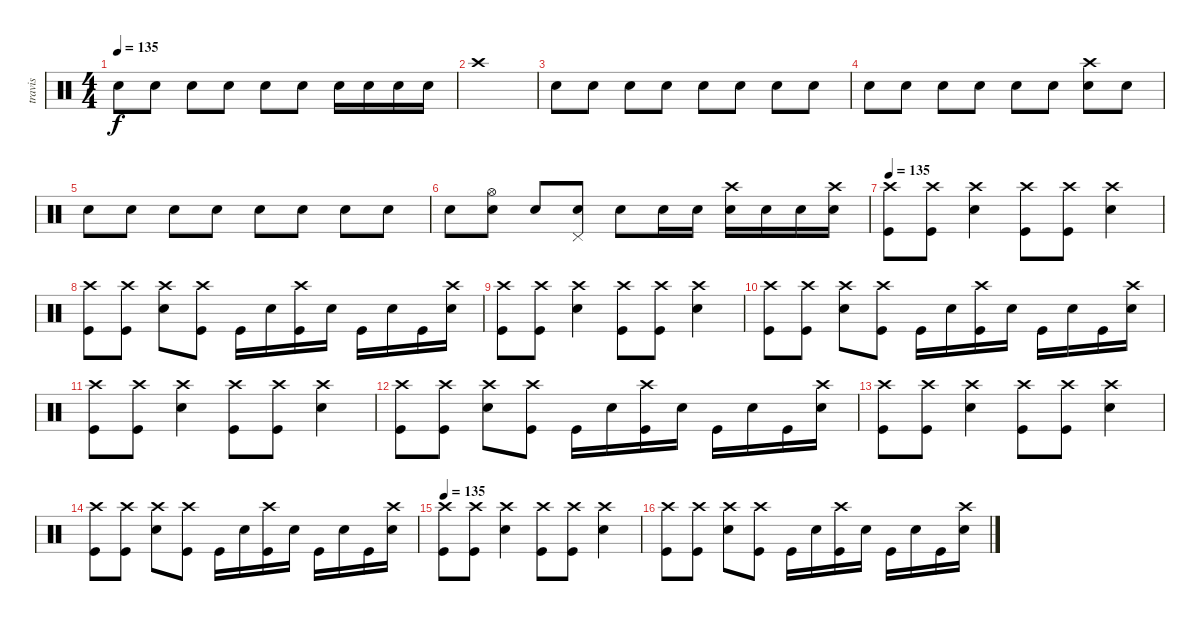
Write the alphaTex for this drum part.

\track ("travis" "travis") {instrument percussion}
\staff {score}
\articulation defaults
\ts (4 4)
\tempo 135
\clef neutral
\ks c "Electric Snare (hit)".8{dy f} "Electric Snare (hit)".8 "Electric Snare (hit)".8 "Electric Snare (hit)".8 "Electric Snare (hit)".8 "Electric Snare (hit)".8 "Electric Snare (hit)".16 "Electric Snare (hit)".16 "Electric Snare (hit)".16 "Electric Snare (hit)".16
|
"Crash high (hit)".1 |
"Electric Snare (hit)".8 "Electric Snare (hit)".8 "Electric Snare (hit)".8 "Electric Snare (hit)".8 "Electric Snare (hit)".8 "Electric Snare (hit)".8 "Electric Snare (hit)".8 "Electric Snare (hit)".8 |
"Electric Snare (hit)".8 "Electric Snare (hit)".8 "Electric Snare (hit)".8 "Electric Snare (hit)".8 "Electric Snare (hit)".8 "Electric Snare (hit)".8 ("Crash high (hit)" "Electric Snare (hit)").8 "Electric Snare (hit)".8 |
"Electric Snare (hit)".8 "Electric Snare (hit)".8 "Electric Snare (hit)".8 "Electric Snare (hit)".8 "Electric Snare (hit)".8 "Electric Snare (hit)".8 "Electric Snare (hit)".8 "Electric Snare (hit)".8 |
"Electric Snare (hit)".8 ("Hi-Hat (open)" "Electric Snare (hit)").8 "Electric Snare (hit)".8 ("Pedal Hi-Hat (hit)" "Electric Snare (hit)").8 "Electric Snare (hit)".8 "Electric Snare (hit)".16 "Electric Snare (hit)".16 ("Crash high (hit)" "Electric Snare (hit)").16 "Electric Snare (hit)".16 "Electric Snare (hit)".16 ("Crash high (hit)" "Electric Snare (hit)").16 |
\tempo 135
("Crash high (hit)" "Kick (hit)").8 ("Crash high (hit)" "Kick (hit)").8 ("Crash high (hit)" "Electric Snare (hit)").4 ("Crash high (hit)" "Kick (hit)").8 ("Crash high (hit)" "Kick (hit)").8 ("Crash high (hit)" "Electric Snare (hit)").4 |
("Crash high (hit)" "Kick (hit)").8 ("Crash high (hit)" "Kick (hit)").8 ("Crash high (hit)" "Electric Snare (hit)").8 ("Crash high (hit)" "Kick (hit)").8 "Kick (hit)".16 "Electric Snare (hit)".16 ("Crash high (hit)" "Kick (hit)").16 "Electric Snare (hit)".16 "Kick (hit)".16 "Electric Snare (hit)".16 "Kick (hit)".16 ("Crash high (hit)" "Electric Snare (hit)").16 |
("Crash high (hit)" "Kick (hit)").8 ("Crash high (hit)" "Kick (hit)").8 ("Crash high (hit)" "Electric Snare (hit)").4 ("Crash high (hit)" "Kick (hit)").8 ("Crash high (hit)" "Kick (hit)").8 ("Crash high (hit)" "Electric Snare (hit)").4 |
("Crash high (hit)" "Kick (hit)").8 ("Crash high (hit)" "Kick (hit)").8 ("Crash high (hit)" "Electric Snare (hit)").8 ("Crash high (hit)" "Kick (hit)").8 "Kick (hit)".16 "Electric Snare (hit)".16 ("Crash high (hit)" "Kick (hit)").16 "Electric Snare (hit)".16 "Kick (hit)".16 "Electric Snare (hit)".16 "Kick (hit)".16 ("Crash high (hit)" "Electric Snare (hit)").16 |
("Crash high (hit)" "Kick (hit)").8 ("Crash high (hit)" "Kick (hit)").8 ("Crash high (hit)" "Electric Snare (hit)").4 ("Crash high (hit)" "Kick (hit)").8 ("Crash high (hit)" "Kick (hit)").8 ("Crash high (hit)" "Electric Snare (hit)").4 |
("Crash high (hit)" "Kick (hit)").8 ("Crash high (hit)" "Kick (hit)").8 ("Crash high (hit)" "Electric Snare (hit)").8 ("Crash high (hit)" "Kick (hit)").8 "Kick (hit)".16 "Electric Snare (hit)".16 ("Crash high (hit)" "Kick (hit)").16 "Electric Snare (hit)".16 "Kick (hit)".16 "Electric Snare (hit)".16 "Kick (hit)".16 ("Crash high (hit)" "Electric Snare (hit)").16 |
("Crash high (hit)" "Kick (hit)").8 ("Crash high (hit)" "Kick (hit)").8 ("Crash high (hit)" "Electric Snare (hit)").4 ("Crash high (hit)" "Kick (hit)").8 ("Crash high (hit)" "Kick (hit)").8 ("Crash high (hit)" "Electric Snare (hit)").4 |
("Crash high (hit)" "Kick (hit)").8 ("Crash high (hit)" "Kick (hit)").8 ("Crash high (hit)" "Electric Snare (hit)").8 ("Crash high (hit)" "Kick (hit)").8 "Kick (hit)".16 "Electric Snare (hit)".16 ("Crash high (hit)" "Kick (hit)").16 "Electric Snare (hit)".16 "Kick (hit)".16 "Electric Snare (hit)".16 "Kick (hit)".16 ("Crash high (hit)" "Electric Snare (hit)").16 |
\tempo 135
("Crash high (hit)" "Kick (hit)").8 ("Crash high (hit)" "Kick (hit)").8 ("Crash high (hit)" "Electric Snare (hit)").4 ("Crash high (hit)" "Kick (hit)").8 ("Crash high (hit)" "Kick (hit)").8 ("Crash high (hit)" "Electric Snare (hit)").4 |
("Crash high (hit)" "Kick (hit)").8 ("Crash high (hit)" "Kick (hit)").8 ("Crash high (hit)" "Electric Snare (hit)").8 ("Crash high (hit)" "Kick (hit)").8 "Kick (hit)".16 "Electric Snare (hit)".16 ("Crash high (hit)" "Kick (hit)").16 "Electric Snare (hit)".16 "Kick (hit)".16 "Electric Snare (hit)".16 "Kick (hit)".16 ("Crash high (hit)" "Electric Snare (hit)").16
